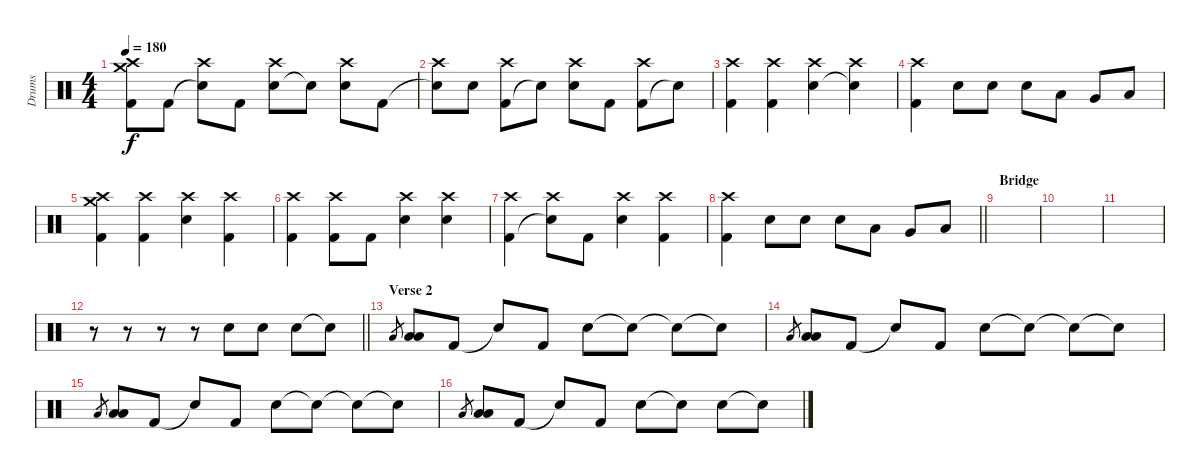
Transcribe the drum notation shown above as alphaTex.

\track ("Drums" "Drums") {instrument percussion}
\staff {score}
\articulation defaults
\ts (4 4)
\tempo 180
\clef neutral
\ks c
("Kick (hit) 2" "Crash medium (hit)" "Crash high (hit)").8{dy f} "Kick (hit) 2".8 ("Snare (hit)"{t} "Crash high (hit)").8 "Kick (hit) 2".8 ("Electric Snare (hit)" "Crash high (hit)").8 "Snare (hit)"{t}.8 ("Electric Snare (hit)" "Crash high (hit)").8 "Kick (hit) 2".8 |
("Snare (hit)"{t} "Crash high (hit)").8 "Electric Snare (hit)".8 ("Kick (hit) 2" "Crash high (hit)").8 "Snare (hit)"{t}.8 ("Electric Snare (hit)" "Crash high (hit)").8 "Kick (hit) 2".8 ("Kick (hit) 2" "Crash high (hit)").8 "Electric Snare (hit)"{t}.8 |
("Kick (hit) 2" "Crash high (hit)").4 ("Kick (hit) 2" "Crash high (hit)").4 ("Electric Snare (hit)" "Crash high (hit)").4 ("Snare (hit)"{t} "Crash high (hit)").4 |
("Kick (hit) 2" "Crash high (hit)").4 "Electric Snare (hit)".8 "Electric Snare (hit)".8 "Electric Snare (hit)".8 "Low Tom (hit)".8 "Very Low Tom (hit)".8 "Low Floor Tom (hit)".8 |
("Kick (hit) 2" "Crash medium (hit)" "Crash high (hit)").4 ("Kick (hit) 2" "Crash high (hit)").4 ("Electric Snare (hit)" "Crash high (hit)").4 ("Kick (hit) 2" "Crash high (hit)").4 |
("Kick (hit) 2" "Crash high (hit)").4 ("Kick (hit) 2" "Crash high (hit)").8 "Kick (hit) 2".8 ("Electric Snare (hit)" "Crash high (hit)").4 ("Electric Snare (hit)" "Crash high (hit)").4 |
("Kick (hit) 2" "Crash high (hit)").4 ("Snare (hit)"{t} "Crash high (hit)").8 "Kick (hit) 2".8 ("Electric Snare (hit)" "Crash high (hit)").4 ("Kick (hit) 2" "Crash high (hit)").4 |
\barLineRight lightlight
("Kick (hit) 2" "Crash high (hit)").4 "Electric Snare (hit)".8 "Electric Snare (hit)".8 "Electric Snare (hit)".8 "Low Tom (hit)".8 "Very Low Tom (hit)".8 "Low Floor Tom (hit)".8 |
\section ("" "Bridge")
|
|
|
\barLineRight lightlight
r.8 r.8 r.8 r.8 "Electric Snare (hit)".8 "Electric Snare (hit)".8 "Electric Snare (hit)".8 "Electric Snare (hit)"{t}.8 |
\section ("" "Verse 2")
"Low Tom (hit)".8{gr} ("Low Tom (hit)" "Low Floor Tom (hit)").8 "Kick (hit) 2".8 "Snare (hit)"{t}.8 "Kick (hit) 2".8 "Electric Snare (hit)".8 "Snare (hit)"{t}.8 "Snare (hit)"{t}.8 "Snare (hit)"{t}.8 |
"Low Tom (hit)".8{gr} ("Low Tom (hit)" "Low Floor Tom (hit)").8 "Kick (hit) 2".8 "Snare (hit)"{t}.8 "Kick (hit) 2".8 "Electric Snare (hit)".8 "Snare (hit)"{t}.8 "Snare (hit)"{t}.8 "Snare (hit)"{t}.8 |
"Low Tom (hit)".8{gr} ("Low Tom (hit)" "Low Floor Tom (hit)").8 "Kick (hit) 2".8 "Snare (hit)"{t}.8 "Kick (hit) 2".8 "Electric Snare (hit)".8 "Snare (hit)"{t}.8 "Snare (hit)"{t}.8 "Snare (hit)"{t}.8 |
"Low Tom (hit)".8{gr} ("Low Tom (hit)" "Low Floor Tom (hit)").8 "Kick (hit) 2".8 "Snare (hit)"{t}.8 "Kick (hit) 2".8 "Electric Snare (hit)".8 "Snare (hit)"{t}.8 "Electric Snare (hit)".8 "Snare (hit)"{t}.8
